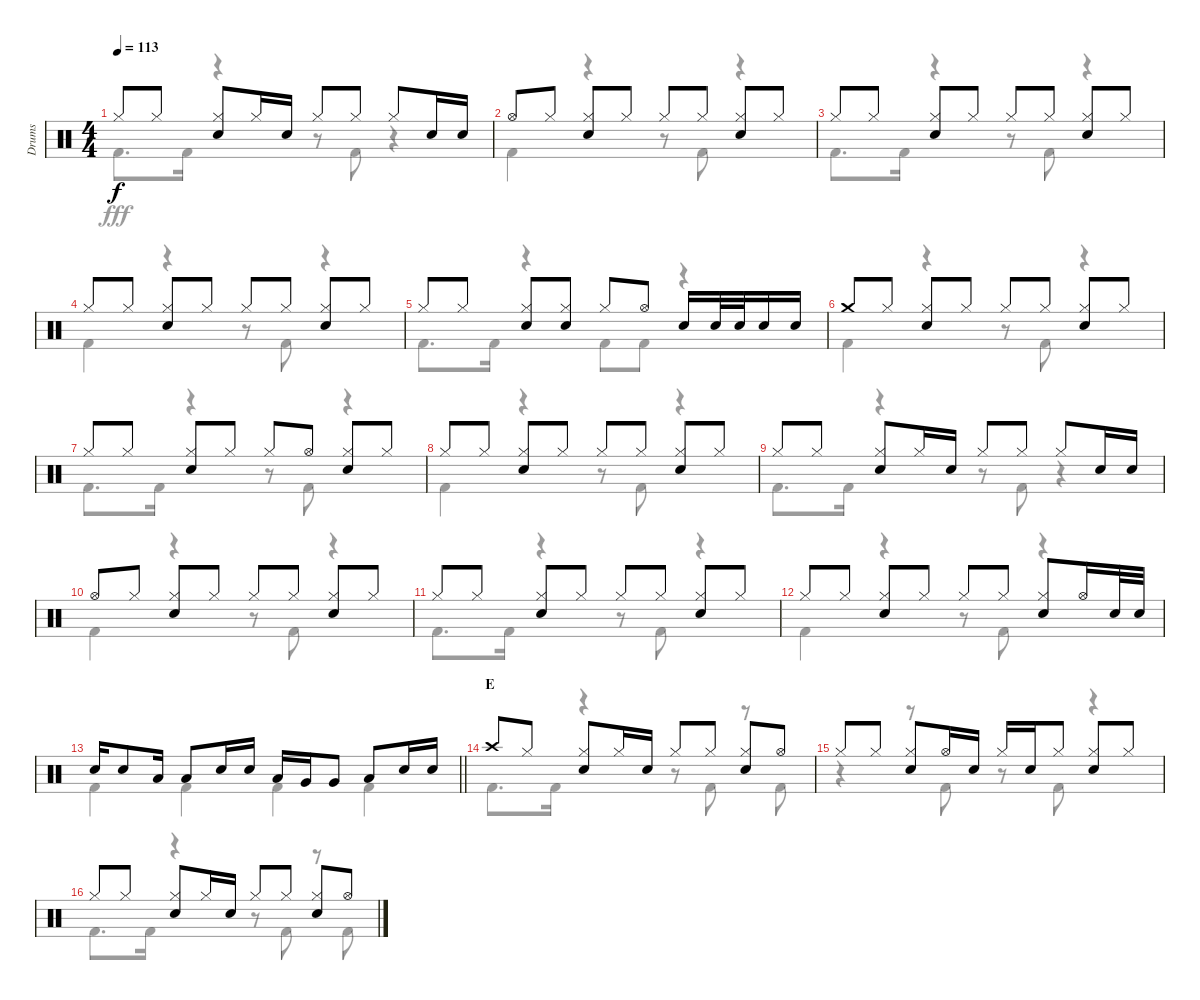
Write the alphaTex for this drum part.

\track ("Drums" "Drums") {instrument percussion}
\staff {score}
\articulation defaults
\voice
\ts (4 4)
\tempo 113
\clef neutral
\ks c "Hi-Hat (closed)".8{dy f} "Hi-Hat (closed)".8
("Hi-Hat (closed)" "Snare (hit) 2").8 "Hi-Hat (closed)".16 "Snare (hit) 2".16 "Hi-Hat (closed)".8 "Hi-Hat (closed)".8 "Hi-Hat (closed)".8 "Snare (hit) 2".16 "Snare (hit) 2".16 |
"Hi-Hat (open)".8 "Hi-Hat (closed)".8 ("Hi-Hat (closed)" "Snare (hit) 2").8 "Hi-Hat (closed)".8 "Hi-Hat (closed)".8 "Hi-Hat (closed)".8 ("Hi-Hat (closed)" "Snare (hit) 2").8 "Hi-Hat (closed)".8 |
"Hi-Hat (closed)".8 "Hi-Hat (closed)".8 ("Hi-Hat (closed)" "Snare (hit) 2").8 "Hi-Hat (closed)".8 "Hi-Hat (closed)".8 "Hi-Hat (closed)".8 ("Hi-Hat (closed)" "Snare (hit) 2").8 "Hi-Hat (closed)".8 |
"Hi-Hat (closed)".8 "Hi-Hat (closed)".8 ("Hi-Hat (closed)" "Snare (hit) 2").8 "Hi-Hat (closed)".8 "Hi-Hat (closed)".8 "Hi-Hat (closed)".8 ("Hi-Hat (closed)" "Snare (hit) 2").8 "Hi-Hat (closed)".8 |
"Hi-Hat (closed)".8 "Hi-Hat (closed)".8 ("Hi-Hat (closed)" "Snare (hit) 2").8 ("Hi-Hat (closed)" "Snare (hit) 2").8 "Hi-Hat (closed)".8 "Hi-Hat (open)".8 "Snare (hit) 2".16 "Snare (hit) 2".32 "Snare (hit) 2".32 "Snare (hit) 2".16 "Snare (hit) 2".16 |
"Crash medium (hit)".8 "Hi-Hat (closed)".8 ("Hi-Hat (closed)" "Snare (hit) 2").8 "Hi-Hat (closed)".8 "Hi-Hat (closed)".8 "Hi-Hat (closed)".8 ("Hi-Hat (closed)" "Snare (hit) 2").8 "Hi-Hat (closed)".8 |
"Hi-Hat (closed)".8 "Hi-Hat (closed)".8 ("Hi-Hat (closed)" "Snare (hit) 2").8 "Hi-Hat (closed)".8 "Hi-Hat (closed)".8 "Hi-Hat (open)".8 ("Hi-Hat (closed)" "Snare (hit) 2").8 "Hi-Hat (closed)".8 |
"Hi-Hat (closed)".8 "Hi-Hat (closed)".8 ("Hi-Hat (closed)" "Snare (hit) 2").8 "Hi-Hat (closed)".8 "Hi-Hat (closed)".8 "Hi-Hat (closed)".8 ("Hi-Hat (closed)" "Snare (hit) 2").8 "Hi-Hat (closed)".8 |
"Hi-Hat (closed)".8 "Hi-Hat (closed)".8 ("Hi-Hat (closed)" "Snare (hit) 2").8 "Hi-Hat (closed)".16 "Snare (hit) 2".16 "Hi-Hat (closed)".8 "Hi-Hat (closed)".8 "Hi-Hat (closed)".8 "Snare (hit) 2".16 "Snare (hit) 2".16 |
"Hi-Hat (open)".8 "Hi-Hat (closed)".8 ("Hi-Hat (closed)" "Snare (hit) 2").8 "Hi-Hat (closed)".8 "Hi-Hat (closed)".8 "Hi-Hat (closed)".8 ("Hi-Hat (closed)" "Snare (hit) 2").8 "Hi-Hat (closed)".8 |
"Hi-Hat (closed)".8 "Hi-Hat (closed)".8 ("Hi-Hat (closed)" "Snare (hit) 2").8 "Hi-Hat (closed)".8 "Hi-Hat (closed)".8 "Hi-Hat (closed)".8 ("Hi-Hat (closed)" "Snare (hit) 2").8 "Hi-Hat (closed)".8 |
"Hi-Hat (closed)".8 "Hi-Hat (closed)".8 ("Hi-Hat (closed)" "Snare (hit) 2").8 "Hi-Hat (closed)".8 "Hi-Hat (closed)".8 "Hi-Hat (closed)".8 ("Hi-Hat (closed)" "Snare (hit) 2").8 "Hi-Hat (open)".16 "Snare (hit) 2".32 "Snare (hit) 2".32 |
\barLineRight lightlight "Snare (hit) 2".16 "Snare (hit) 2".8 "Low Tom (hit)".16 "Low Tom (hit)".8 "Snare (hit) 2".16 "Snare (hit) 2".16 "Low Tom (hit)".16 "Very Low Tom (hit)".16 "Very Low Tom (hit)".8 "Low Tom (hit)".8 "Snare (hit) 2".16 "Snare (hit) 2".16
|
\section ("" "E")
"Crash high (hit)".8 "Hi-Hat (closed)".8 ("Hi-Hat (closed)" "Snare (hit) 2").8 "Hi-Hat (closed)".16 "Snare (hit) 2".16 "Hi-Hat (closed)".8 "Hi-Hat (closed)".8 ("Hi-Hat (closed)" "Snare (hit) 2").8 "Hi-Hat (open)".8 |
"Hi-Hat (closed)".8 "Hi-Hat (closed)".8 ("Hi-Hat (closed)" "Snare (hit) 2").8 "Hi-Hat (open)".16 "Snare (hit) 2".16 "Hi-Hat (closed)".16 "Snare (hit) 2".16 "Hi-Hat (closed)".8 ("Hi-Hat (closed)" "Snare (hit) 2").8 "Hi-Hat (closed)".8 |
"Hi-Hat (closed)".8 "Hi-Hat (closed)".8 ("Hi-Hat (closed)" "Snare (hit) 2").8 "Hi-Hat (closed)".16 "Snare (hit) 2".16 "Hi-Hat (closed)".8 "Hi-Hat (closed)".8 ("Hi-Hat (closed)" "Snare (hit) 2").8 "Hi-Hat (open)".8
\voice
\clef neutral
\ottava regular
\simile none
\ks c "Kick (hit) 2".8{d dy fff} "Kick (hit) 2".16
r.4 r.8 "Kick (hit) 2".8 r.4 |
"Kick (hit) 2".4 r.4 r.8 "Kick (hit) 2".8 r.4 |
"Kick (hit) 2".8{d} "Kick (hit) 2".16 r.4 r.8 "Kick (hit) 2".8 r.4 |
"Kick (hit) 2".4 r.4 r.8 "Kick (hit) 2".8 r.4 |
"Kick (hit) 2".8{d} "Kick (hit) 2".16 r.4 "Kick (hit) 2".8 "Kick (hit) 2".8 r.4 |
"Kick (hit) 2".4 r.4 r.8 "Kick (hit) 2".8 r.4 |
"Kick (hit) 2".8{d} "Kick (hit) 2".16 r.4 r.8 "Kick (hit) 2".8 r.4 |
"Kick (hit) 2".4 r.4 r.8 "Kick (hit) 2".8 r.4 |
"Kick (hit) 2".8{d} "Kick (hit) 2".16 r.4 r.8 "Kick (hit) 2".8 r.4 |
"Kick (hit) 2".4 r.4 r.8 "Kick (hit) 2".8 r.4 |
"Kick (hit) 2".8{d} "Kick (hit) 2".16 r.4 r.8 "Kick (hit) 2".8 r.4 |
"Kick (hit) 2".4 r.4 r.8 "Kick (hit) 2".8 r.4 |
\barLineRight lightlight "Kick (hit) 2".4 "Kick (hit) 2".4 "Kick (hit) 2".4 "Kick (hit) 2".4
|
"Kick (hit) 2".8{d} "Kick (hit) 2".16 r.4 r.8 "Kick (hit) 2".8 r.8 "Kick (hit) 2".8 |
r.4 r.8 "Kick (hit) 2".8 r.8 "Kick (hit) 2".8 r.4 |
"Kick (hit) 2".8{d} "Kick (hit) 2".16 r.4 r.8 "Kick (hit) 2".8 r.8 "Kick (hit) 2".8
